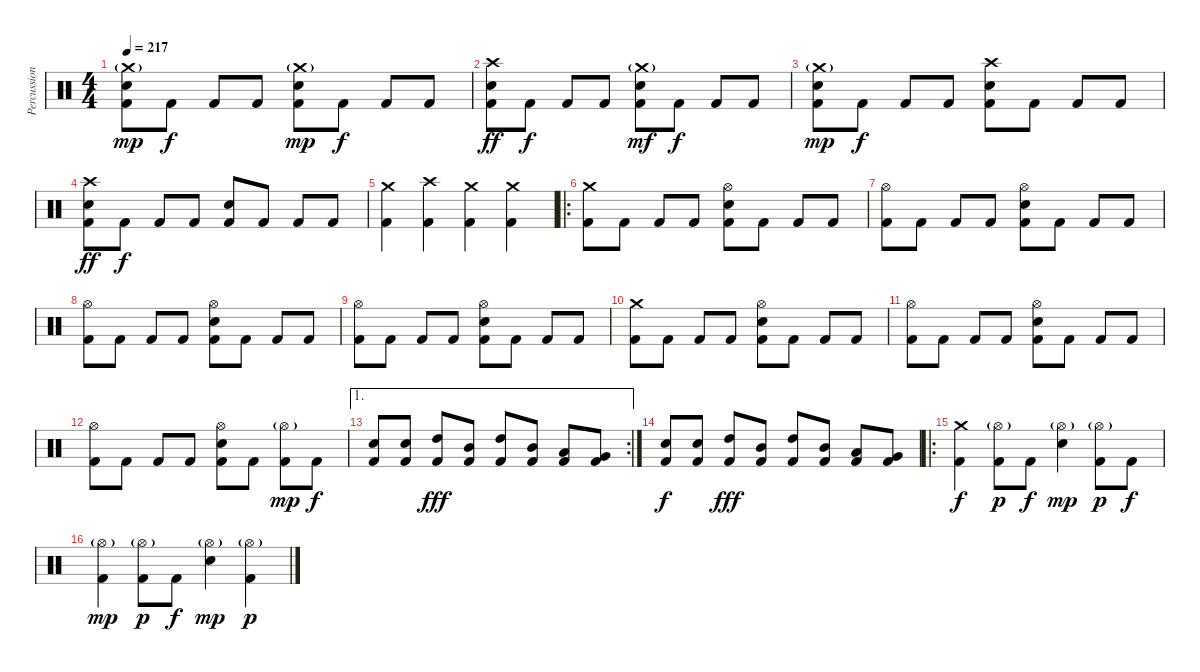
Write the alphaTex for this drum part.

\track ("Percussion" "Percussion") {instrument percussion}
\staff {score}
\articulation defaults
\ts (4 4)
\tempo 217
\clef neutral
\ks c
("Crash medium (hit)"{g} "Electric Snare (hit)" "Kick (hit) 2").8{dy mp} "Kick (hit) 2".8{dy f} "Kick (hit) 2".8 "Kick (hit) 2".8 ("Crash medium (hit)"{g} "Electric Snare (hit)" "Kick (hit) 2").8{dy mp} "Kick (hit) 2".8{dy f} "Kick (hit) 2".8 "Kick (hit) 2".8 |
("Crash high (hit)" "Electric Snare (hit)" "Kick (hit) 2").8{dy ff} "Kick (hit) 2".8{dy f} "Kick (hit) 2".8 "Kick (hit) 2".8 ("Crash medium (hit)"{g} "Electric Snare (hit)" "Kick (hit) 2").8{dy mf} "Kick (hit) 2".8{dy f} "Kick (hit) 2".8 "Kick (hit) 2".8 |
("Crash medium (hit)"{g} "Electric Snare (hit)" "Kick (hit) 2").8{dy mp} "Kick (hit) 2".8{dy f} "Kick (hit) 2".8 "Kick (hit) 2".8 ("Crash high (hit)" "Electric Snare (hit)" "Kick (hit) 2").8 "Kick (hit) 2".8 "Kick (hit) 2".8 "Kick (hit) 2".8 |
("Crash high (hit)" "Electric Snare (hit)" "Kick (hit) 2").8{dy ff} "Kick (hit) 2".8{dy f} "Kick (hit) 2".8 "Kick (hit) 2".8 ("Electric Snare (hit)" "Kick (hit) 2").8 "Kick (hit) 2".8 "Kick (hit) 2".8 "Kick (hit) 2".8 |
("Crash medium (hit)" "Kick (hit) 2").4 ("Crash high (hit)" "Kick (hit) 2").4 ("Crash medium (hit)" "Kick (hit) 2").4 ("Crash medium (hit)" "Kick (hit) 2").4 |
\ro
("Crash medium (hit)" "Kick (hit) 2").8 "Kick (hit) 2".8 "Kick (hit) 2".8 "Kick (hit) 2".8 ("Hi-Hat (open)" "Electric Snare (hit)" "Kick (hit) 2").8 "Kick (hit) 2".8 "Kick (hit) 2".8 "Kick (hit) 2".8 |
("Hi-Hat (open)" "Kick (hit) 2").8 "Kick (hit) 2".8 "Kick (hit) 2".8 "Kick (hit) 2".8 ("Hi-Hat (open)" "Electric Snare (hit)" "Kick (hit) 2").8 "Kick (hit) 2".8 "Kick (hit) 2".8 "Kick (hit) 2".8 |
("Hi-Hat (open)" "Kick (hit) 2").8 "Kick (hit) 2".8 "Kick (hit) 2".8 "Kick (hit) 2".8 ("Hi-Hat (open)" "Electric Snare (hit)" "Kick (hit) 2").8 "Kick (hit) 2".8 "Kick (hit) 2".8 "Kick (hit) 2".8 |
("Hi-Hat (open)" "Kick (hit) 2").8 "Kick (hit) 2".8 "Kick (hit) 2".8 "Kick (hit) 2".8 ("Hi-Hat (open)" "Electric Snare (hit)" "Kick (hit) 2").8 "Kick (hit) 2".8 "Kick (hit) 2".8 "Kick (hit) 2".8 |
("Crash medium (hit)" "Kick (hit) 2").8 "Kick (hit) 2".8 "Kick (hit) 2".8 "Kick (hit) 2".8 ("Hi-Hat (open)" "Electric Snare (hit)" "Kick (hit) 2").8 "Kick (hit) 2".8 "Kick (hit) 2".8 "Kick (hit) 2".8 |
("Hi-Hat (open)" "Kick (hit) 2").8 "Kick (hit) 2".8 "Kick (hit) 2".8 "Kick (hit) 2".8 ("Hi-Hat (open)" "Electric Snare (hit)" "Kick (hit) 2").8 "Kick (hit) 2".8 "Kick (hit) 2".8 "Kick (hit) 2".8 |
("Hi-Hat (open)" "Kick (hit) 2").8 "Kick (hit) 2".8 "Kick (hit) 2".8 "Kick (hit) 2".8 ("Hi-Hat (open)" "Electric Snare (hit)" "Kick (hit) 2").8 "Kick (hit) 2".8 ("Hi-Hat (open)"{g} "Kick (hit) 2").8{dy mp} "Kick (hit) 2".8{dy f} |
\ae 1
\rc 2
("Electric Snare (hit)" "Kick (hit) 2").8 ("Electric Snare (hit)" "Kick (hit) 2").8 ("High Tom (hit)" "Kick (hit) 2").8{dy fff} ("Mid Tom (hit)" "Kick (hit) 2").8 ("High Tom (hit)" "Kick (hit) 2").8 ("Mid Tom (hit)" "Kick (hit) 2").8 ("Low Tom (hit)" "Kick (hit) 2").8 ("Very Low Tom (hit)" "Kick (hit) 2").8 |
("Electric Snare (hit)" "Kick (hit) 2").8{dy f} ("Electric Snare (hit)" "Kick (hit) 2").8 ("High Tom (hit)" "Kick (hit) 2").8{dy fff} ("Mid Tom (hit)" "Kick (hit) 2").8 ("High Tom (hit)" "Kick (hit) 2").8 ("Mid Tom (hit)" "Kick (hit) 2").8 ("Low Tom (hit)" "Kick (hit) 2").8 ("Very Low Tom (hit)" "Kick (hit) 2").8 |
\ro
("Crash medium (hit)" "Kick (hit) 2").4{dy f} ("Hi-Hat (open)"{g} "Kick (hit) 2").8{dy p} "Kick (hit) 2".8{dy f} ("Hi-Hat (open)"{g} "Electric Snare (hit)").4{dy mp} ("Hi-Hat (open)"{g} "Kick (hit) 2").8{dy p} "Kick (hit) 2".8{dy f} |
("Hi-Hat (open)"{g} "Kick (hit) 2").4{dy mp} ("Hi-Hat (open)"{g} "Kick (hit) 2").8{dy p} "Kick (hit) 2".8{dy f} ("Hi-Hat (open)"{g} "Electric Snare (hit)").4{dy mp} ("Hi-Hat (open)"{g} "Kick (hit) 2").4{dy p}
